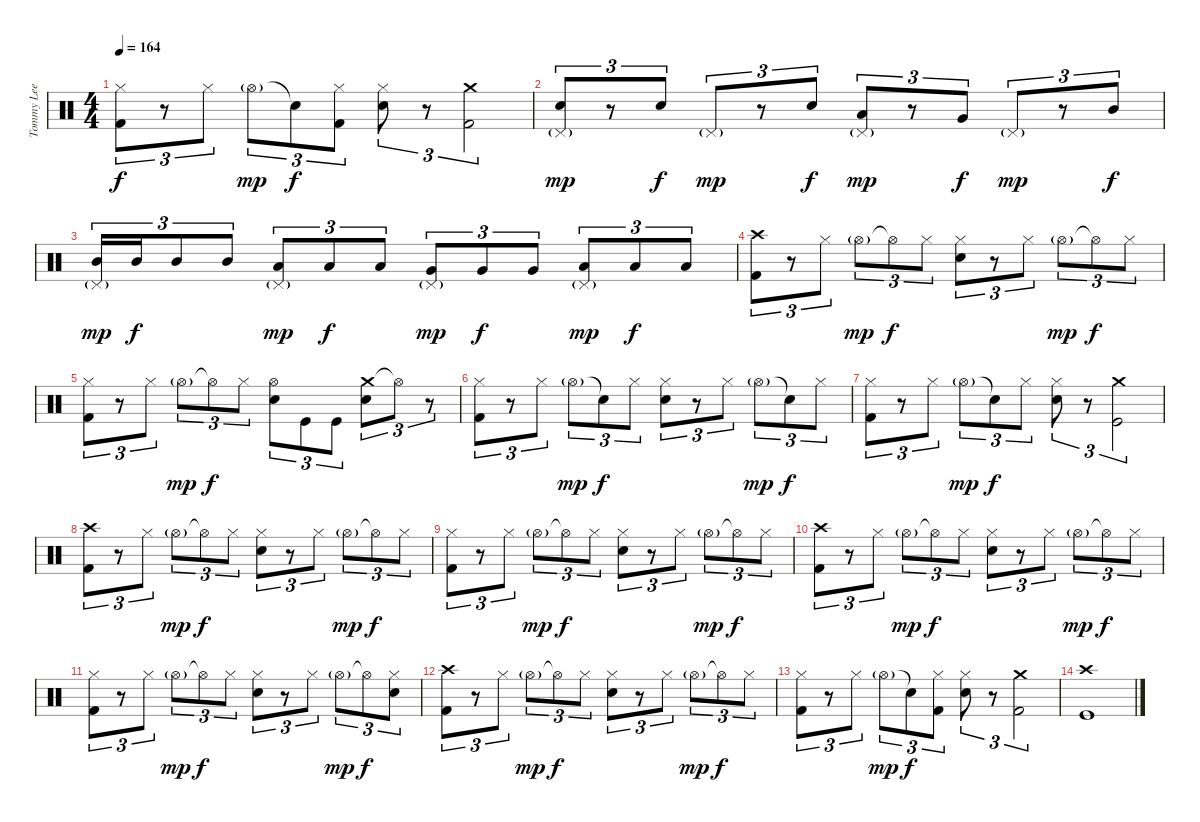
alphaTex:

\track ("Tommy Lee" "Tommy Lee") {instrument percussion}
\staff {score}
\articulation defaults
\ts (4 4)
\tempo 164
\clef neutral
\ks c
("Hi-Hat (closed)" "Kick (hit) 2").8{tu (3 2) dy f} r.8{tu (3 2)} "Hi-Hat (closed)".8{tu (3 2)} "Hi-Hat (open)"{g}.8{tu (3 2) dy mp} "Snare (hit)"{t}.8{tu (3 2) dy f} ("Hi-Hat (closed)" "Kick (hit) 2").8{tu (3 2)} ("Hi-Hat (closed)" "Snare (hit) 2").8{tu (3 2)} r.8{tu (3 2)} ("Crash medium (hit)" "Kick (hit) 2").2{tu (3 2)} |
("Pedal Hi-Hat (hit)"{g} "Snare (hit) 2").8{tu (3 2) dy mp} r.8{tu (3 2)} "Snare (hit) 2".8{tu (3 2) dy f} "Pedal Hi-Hat (hit)"{g}.8{tu (3 2) dy mp} r.8{tu (3 2)} "Snare (hit) 2".8{tu (3 2) dy f} ("Pedal Hi-Hat (hit)"{g} "Low Tom (hit)").8{tu (3 2) dy mp} r.8{tu (3 2)} "Very Low Tom (hit)".8{tu (3 2) dy f} "Pedal Hi-Hat (hit)"{g}.8{tu (3 2) dy mp} r.8{tu (3 2)} "Mid Tom (hit)".8{tu (3 2) dy f} |
("Pedal Hi-Hat (hit)"{g} "Mid Tom (hit)").16{tu (3 2) dy mp} "Mid Tom (hit)".16{tu (3 2) dy f} "Mid Tom (hit)".8{tu (3 2)} "Mid Tom (hit)".8{tu (3 2)} ("Pedal Hi-Hat (hit)"{g} "Low Tom (hit)").8{tu (3 2) dy mp} "Low Tom (hit)".8{tu (3 2) dy f} "Low Tom (hit)".8{tu (3 2)} ("Pedal Hi-Hat (hit)"{g} "Very Low Tom (hit)").8{tu (3 2) dy mp} "Very Low Tom (hit)".8{tu (3 2) dy f} "Very Low Tom (hit)".8{tu (3 2)} ("Pedal Hi-Hat (hit)"{g} "Low Floor Tom (hit)").8{tu (3 2) dy mp} "Low Floor Tom (hit)".8{tu (3 2) dy f} "Low Floor Tom (hit)".8{tu (3 2)} |
("Crash high (hit)" "Kick (hit) 2").8{tu (3 2)} r.8{tu (3 2)} "Hi-Hat (closed)".8{tu (3 2)} "Hi-Hat (open)"{g}.8{tu (3 2) dy mp} "Hi-Hat (open)"{t}.8{tu (3 2) dy f} "Hi-Hat (closed)".8{tu (3 2)} ("Hi-Hat (closed)" "Snare (hit) 2").8{tu (3 2)} r.8{tu (3 2)} "Hi-Hat (closed)".8{tu (3 2)} "Hi-Hat (open)"{g}.8{tu (3 2) dy mp} "Hi-Hat (open)"{t}.8{tu (3 2) dy f} "Hi-Hat (closed)".8{tu (3 2)} |
("Hi-Hat (closed)" "Kick (hit) 2").8{tu (3 2)} r.8{tu (3 2)} "Hi-Hat (closed)".8{tu (3 2)} "Hi-Hat (open)"{g}.8{tu (3 2) dy mp} "Hi-Hat (open)"{t}.8{tu (3 2) dy f} "Hi-Hat (closed)".8{tu (3 2)} ("Hi-Hat (open)" "Snare (hit) 2").8{tu (3 2)} "Kick (hit)".8{tu (3 2)} "Kick (hit)".8{tu (3 2)} ("Crash medium (hit)" "Snare (hit) 2").8{tu (3 2)} "Hi-Hat (open)"{t}.8{tu (3 2)} r.8{tu (3 2)} |
("Hi-Hat (closed)" "Kick (hit) 2").8{tu (3 2)} r.8{tu (3 2)} "Hi-Hat (closed)".8{tu (3 2)} "Hi-Hat (open)"{g}.8{tu (3 2) dy mp} "Snare (hit)"{t}.8{tu (3 2) dy f} "Hi-Hat (closed)".8{tu (3 2)} ("Hi-Hat (closed)" "Snare (hit) 2").8{tu (3 2)} r.8{tu (3 2)} "Hi-Hat (closed)".8{tu (3 2)} "Hi-Hat (open)"{g}.8{tu (3 2) dy mp} "Snare (hit)"{t}.8{tu (3 2) dy f} "Hi-Hat (closed)".8{tu (3 2)} |
("Hi-Hat (closed)" "Kick (hit) 2").8{tu (3 2)} r.8{tu (3 2)} "Hi-Hat (closed)".8{tu (3 2)} "Hi-Hat (open)"{g}.8{tu (3 2) dy mp} "Snare (hit)"{t}.8{tu (3 2) dy f} "Hi-Hat (closed)".8{tu (3 2)} ("Hi-Hat (closed)" "Snare (hit) 2").8{tu (3 2)} r.8{tu (3 2)} ("Crash medium (hit)" "Kick (hit)").2{tu (3 2)} |
("Crash high (hit)" "Kick (hit) 2").8{tu (3 2)} r.8{tu (3 2)} "Hi-Hat (closed)".8{tu (3 2)} "Hi-Hat (open)"{g}.8{tu (3 2) dy mp} "Hi-Hat (open)"{t}.8{tu (3 2) dy f} "Hi-Hat (closed)".8{tu (3 2)} ("Hi-Hat (closed)" "Snare (hit) 2").8{tu (3 2)} r.8{tu (3 2)} "Hi-Hat (closed)".8{tu (3 2)} "Hi-Hat (open)"{g}.8{tu (3 2) dy mp} "Hi-Hat (open)"{t}.8{tu (3 2) dy f} "Hi-Hat (closed)".8{tu (3 2)} |
("Hi-Hat (closed)" "Kick (hit) 2").8{tu (3 2)} r.8{tu (3 2)} "Hi-Hat (closed)".8{tu (3 2)} "Hi-Hat (open)"{g}.8{tu (3 2) dy mp} "Hi-Hat (open)"{t}.8{tu (3 2) dy f} "Hi-Hat (closed)".8{tu (3 2)} ("Hi-Hat (closed)" "Snare (hit) 2").8{tu (3 2)} r.8{tu (3 2)} "Hi-Hat (closed)".8{tu (3 2)} "Hi-Hat (open)"{g}.8{tu (3 2) dy mp} "Hi-Hat (open)"{t}.8{tu (3 2) dy f} "Hi-Hat (closed)".8{tu (3 2)} |
("Crash high (hit)" "Kick (hit) 2").8{tu (3 2)} r.8{tu (3 2)} "Hi-Hat (closed)".8{tu (3 2)} "Hi-Hat (open)"{g}.8{tu (3 2) dy mp} "Hi-Hat (open)"{t}.8{tu (3 2) dy f} "Hi-Hat (closed)".8{tu (3 2)} ("Hi-Hat (closed)" "Snare (hit) 2").8{tu (3 2)} r.8{tu (3 2)} "Hi-Hat (closed)".8{tu (3 2)} "Hi-Hat (open)"{g}.8{tu (3 2) dy mp} "Hi-Hat (open)"{t}.8{tu (3 2) dy f} "Hi-Hat (closed)".8{tu (3 2)} |
("Hi-Hat (closed)" "Kick (hit) 2").8{tu (3 2)} r.8{tu (3 2)} "Hi-Hat (closed)".8{tu (3 2)} "Hi-Hat (open)"{g}.8{tu (3 2) dy mp} "Hi-Hat (open)"{t}.8{tu (3 2) dy f} "Hi-Hat (closed)".8{tu (3 2)} ("Hi-Hat (closed)" "Snare (hit) 2").8{tu (3 2)} r.8{tu (3 2)} "Hi-Hat (closed)".8{tu (3 2)} "Hi-Hat (open)"{g}.8{tu (3 2) dy mp} "Hi-Hat (open)"{t}.8{tu (3 2) dy f} ("Hi-Hat (closed)" "Snare (hit) 2").8{tu (3 2)} |
("Crash high (hit)" "Kick (hit) 2").8{tu (3 2)} r.8{tu (3 2)} "Hi-Hat (closed)".8{tu (3 2)} "Hi-Hat (open)"{g}.8{tu (3 2) dy mp} "Hi-Hat (open)"{t}.8{tu (3 2) dy f} "Hi-Hat (closed)".8{tu (3 2)} ("Hi-Hat (closed)" "Snare (hit) 2").8{tu (3 2)} r.8{tu (3 2)} "Hi-Hat (closed)".8{tu (3 2)} "Hi-Hat (open)"{g}.8{tu (3 2) dy mp} "Hi-Hat (open)"{t}.8{tu (3 2) dy f} "Hi-Hat (closed)".8{tu (3 2)} |
("Hi-Hat (closed)" "Kick (hit) 2").8{tu (3 2)} r.8{tu (3 2)} "Hi-Hat (closed)".8{tu (3 2)} "Hi-Hat (open)"{g}.8{tu (3 2) dy mp} "Snare (hit)"{t}.8{tu (3 2) dy f} ("Hi-Hat (closed)" "Kick (hit) 2").8{tu (3 2)} ("Hi-Hat (closed)" "Snare (hit) 2").8{tu (3 2)} r.8{tu (3 2)} ("Crash medium (hit)" "Kick (hit) 2").2{tu (3 2)} |
("Crash high (hit)" "Kick (hit)").1
